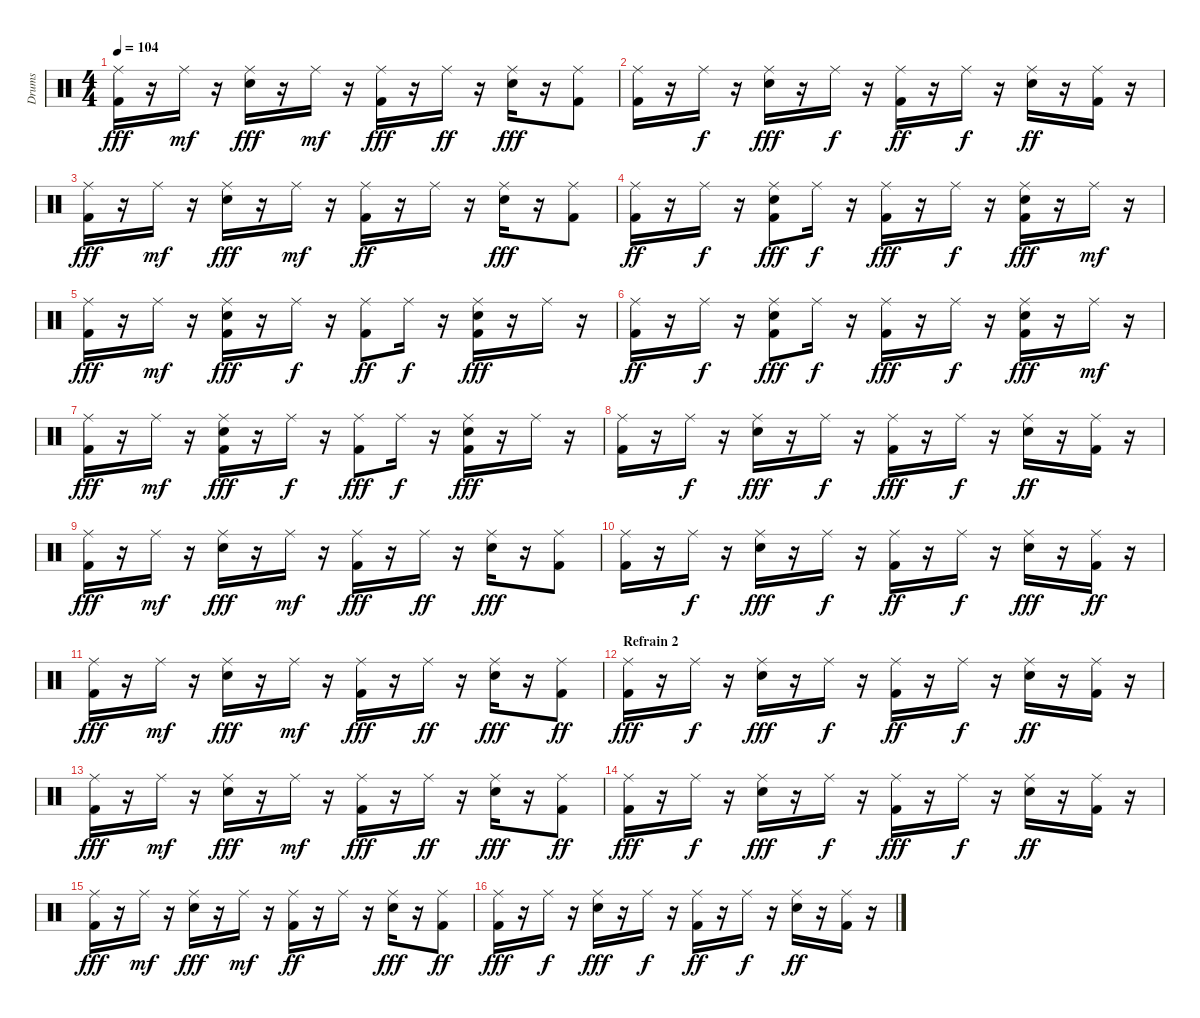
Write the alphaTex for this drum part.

\track ("Drums" "Drums") {instrument percussion}
\staff {score}
\articulation defaults
\ts (4 4)
\tempo 104
\clef neutral
\ks c
("Ride (middle)" "Kick (hit) 2").16{dy fff} r.16 "Ride (middle)".16{dy mf} r.16 ("Snare (hit) 2" "Ride (middle)").16{dy fff} r.16 "Ride (middle)".16{dy mf} r.16 ("Ride (middle)" "Kick (hit) 2").16{dy fff} r.16 "Ride (middle)".16{dy ff} r.16 ("Ride (middle)" "Snare (hit) 2").16{dy fff} r.16 ("Kick (hit) 2" "Ride (middle)").8 |
("Kick (hit) 2" "Ride (middle)").16 r.16 "Ride (middle)".16{dy f} r.16 ("Ride (middle)" "Snare (hit) 2").16{dy fff} r.16 "Ride (middle)".16{dy f} r.16 ("Kick (hit) 2" "Ride (middle)").16{dy ff} r.16 "Ride (middle)".16{dy f} r.16 ("Snare (hit) 2" "Ride (middle)").16{dy ff} r.16 ("Ride (middle)" "Kick (hit) 2").16 r.16 |
("Ride (middle)" "Kick (hit) 2").16{dy fff} r.16 "Ride (middle)".16{dy mf} r.16 ("Snare (hit) 2" "Ride (middle)").16{dy fff} r.16 "Ride (middle)".16{dy mf} r.16 ("Kick (hit) 2" "Ride (middle)").16{dy ff} r.16 "Ride (middle)".16 r.16 ("Snare (hit) 2" "Ride (middle)").16{dy fff} r.16 ("Kick (hit) 2" "Ride (middle)").8 |
("Kick (hit) 2" "Ride (middle)").16{dy ff} r.16 "Ride (middle)".16{dy f} r.16 ("Kick (hit) 2" "Ride (middle)" "Snare (hit) 2").8{dy fff} "Ride (middle)".16{dy f} r.16 ("Ride (middle)" "Kick (hit) 2").16{dy fff} r.16 "Ride (middle)".16{dy f} r.16 ("Kick (hit) 2" "Snare (hit) 2" "Ride (middle)").16{dy fff} r.16 "Ride (middle)".16{dy mf} r.16 |
("Ride (middle)" "Kick (hit) 2").16{dy fff} r.16 "Ride (middle)".16{dy mf} r.16 ("Kick (hit) 2" "Ride (middle)" "Snare (hit) 2").16{dy fff} r.16 "Ride (middle)".16{dy f} r.16 ("Kick (hit) 2" "Ride (middle)").8{dy ff} "Ride (middle)".16{dy f} r.16 ("Snare (hit) 2" "Kick (hit) 2" "Ride (middle)").16{dy fff} r.16 "Ride (middle)".16 r.16 |
("Ride (middle)" "Kick (hit) 2").16{dy ff} r.16 "Ride (middle)".16{dy f} r.16 ("Ride (middle)" "Kick (hit) 2" "Snare (hit) 2").8{dy fff} "Ride (middle)".16{dy f} r.16 ("Ride (middle)" "Kick (hit) 2").16{dy fff} r.16 "Ride (middle)".16{dy f} r.16 ("Ride (middle)" "Snare (hit) 2" "Kick (hit) 2").16{dy fff} r.16 "Ride (middle)".16{dy mf} r.16 |
("Ride (middle)" "Kick (hit) 2").16{dy fff} r.16 "Ride (middle)".16{dy mf} r.16 ("Snare (hit) 2" "Ride (middle)" "Kick (hit) 2").16{dy fff} r.16 "Ride (middle)".16{dy f} r.16 ("Ride (middle)" "Kick (hit) 2").8{dy fff} "Ride (middle)".16{dy f} r.16 ("Snare (hit) 2" "Kick (hit) 2" "Ride (middle)").16{dy fff} r.16 "Ride (middle)".16 r.16 |
("Ride (middle)" "Kick (hit) 2").16 r.16 "Ride (middle)".16{dy f} r.16 ("Ride (middle)" "Snare (hit) 2").16{dy fff} r.16 "Ride (middle)".16{dy f} r.16 ("Ride (middle)" "Kick (hit) 2").16{dy fff} r.16 "Ride (middle)".16{dy f} r.16 ("Snare (hit) 2" "Ride (middle)").16{dy ff} r.16 ("Ride (middle)" "Kick (hit) 2").16 r.16 |
("Kick (hit) 2" "Ride (middle)").16{dy fff} r.16 "Ride (middle)".16{dy mf} r.16 ("Snare (hit) 2" "Ride (middle)").16{dy fff} r.16 "Ride (middle)".16{dy mf} r.16 ("Ride (middle)" "Kick (hit) 2").16{dy fff} r.16 "Ride (middle)".16{dy ff} r.16 ("Ride (middle)" "Snare (hit) 2").16{dy fff} r.16 ("Kick (hit) 2" "Ride (middle)").8 |
("Kick (hit) 2" "Ride (middle)").16 r.16 "Ride (middle)".16{dy f} r.16 ("Ride (middle)" "Snare (hit) 2").16{dy fff} r.16 "Ride (middle)".16{dy f} r.16 ("Kick (hit) 2" "Ride (middle)").16{dy ff} r.16 "Ride (middle)".16{dy f} r.16 ("Ride (middle)" "Snare (hit) 2").16{dy fff} r.16 ("Kick (hit) 2" "Ride (middle)").16{dy ff} r.16 |
("Ride (middle)" "Kick (hit) 2").16{dy fff} r.16 "Ride (middle)".16{dy mf} r.16 ("Ride (middle)" "Snare (hit) 2").16{dy fff} r.16 "Ride (middle)".16{dy mf} r.16 ("Ride (middle)" "Kick (hit) 2").16{dy fff} r.16 "Ride (middle)".16{dy ff} r.16 ("Snare (hit) 2" "Ride (middle)").16{dy fff} r.16 ("Ride (middle)" "Kick (hit) 2").8{dy ff} |
\section ("" "Refrain 2")
("Kick (hit) 2" "Ride (middle)").16{dy fff} r.16 "Ride (middle)".16{dy f} r.16 ("Snare (hit) 2" "Ride (middle)").16{dy fff} r.16 "Ride (middle)".16{dy f} r.16 ("Kick (hit) 2" "Ride (middle)").16{dy ff} r.16 "Ride (middle)".16{dy f} r.16 ("Snare (hit) 2" "Ride (middle)").16{dy ff} r.16 ("Ride (middle)" "Kick (hit) 2").16 r.16 |
("Kick (hit) 2" "Ride (middle)").16{dy fff} r.16 "Ride (middle)".16{dy mf} r.16 ("Snare (hit) 2" "Ride (middle)").16{dy fff} r.16 "Ride (middle)".16{dy mf} r.16 ("Ride (middle)" "Kick (hit) 2").16{dy fff} r.16 "Ride (middle)".16{dy ff} r.16 ("Ride (middle)" "Snare (hit) 2").16{dy fff} r.16 ("Ride (middle)" "Kick (hit) 2").8{dy ff} |
("Kick (hit) 2" "Ride (middle)").16{dy fff} r.16 "Ride (middle)".16{dy f} r.16 ("Ride (middle)" "Snare (hit) 2").16{dy fff} r.16 "Ride (middle)".16{dy f} r.16 ("Ride (middle)" "Kick (hit) 2").16{dy fff} r.16 "Ride (middle)".16{dy f} r.16 ("Snare (hit) 2" "Ride (middle)").16{dy ff} r.16 ("Kick (hit) 2" "Ride (middle)").16 r.16 |
("Ride (middle)" "Kick (hit) 2").16{dy fff} r.16 "Ride (middle)".16{dy mf} r.16 ("Ride (middle)" "Snare (hit) 2").16{dy fff} r.16 "Ride (middle)".16{dy mf} r.16 ("Kick (hit) 2" "Ride (middle)").16{dy ff} r.16 "Ride (middle)".16 r.16 ("Snare (hit) 2" "Ride (middle)").16{dy fff} r.16 ("Ride (middle)" "Kick (hit) 2").8{dy ff} |
("Kick (hit) 2" "Ride (middle)").16{dy fff} r.16 "Ride (middle)".16{dy f} r.16 ("Snare (hit) 2" "Ride (middle)").16{dy fff} r.16 "Ride (middle)".16{dy f} r.16 ("Kick (hit) 2" "Ride (middle)").16{dy ff} r.16 "Ride (middle)".16{dy f} r.16 ("Snare (hit) 2" "Ride (middle)").16{dy ff} r.16 ("Ride (middle)" "Kick (hit) 2").16 r.16
